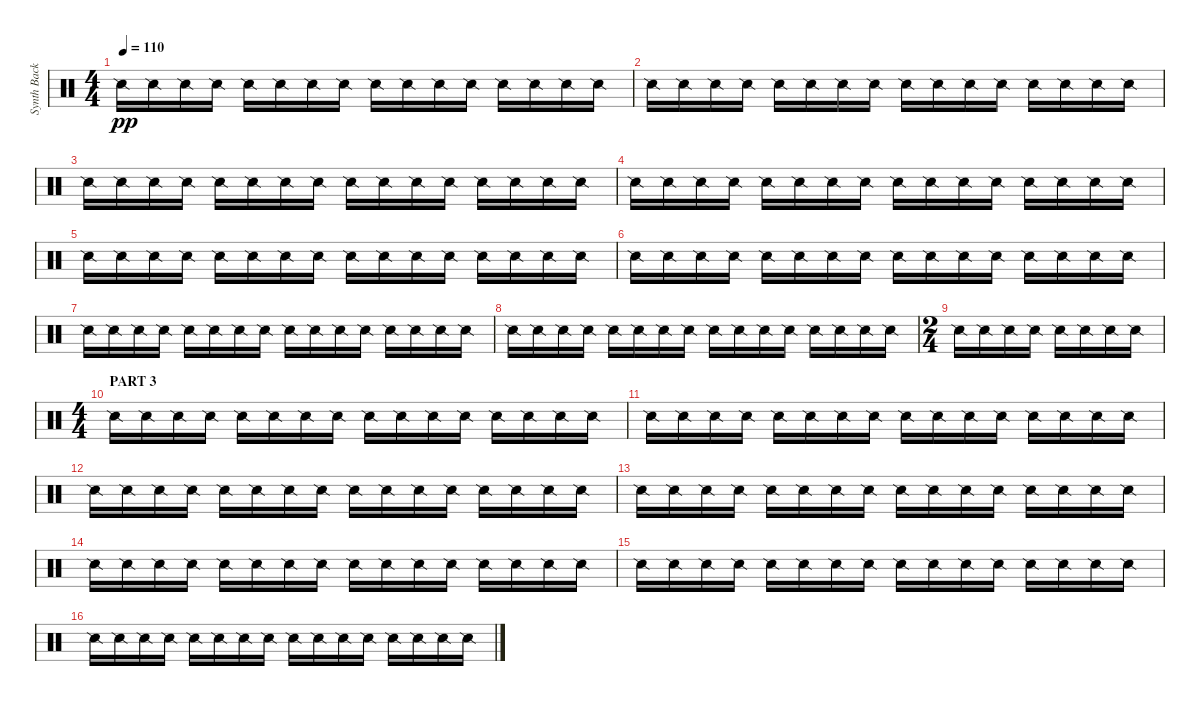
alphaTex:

\track ("Synth Background Rhythm" "Synth Back") {instrument percussion}
\staff {score}
\articulation defaults
\ts (4 4)
\tempo 110
\clef neutral
\ks c "Snare (side stick) 2".16{dy pp} "Snare (side stick) 2".16 "Snare (side stick) 2".16 "Snare (side stick) 2".16 "Snare (side stick) 2".16 "Snare (side stick) 2".16 "Snare (side stick) 2".16 "Snare (side stick) 2".16 "Snare (side stick) 2".16 "Snare (side stick) 2".16 "Snare (side stick) 2".16 "Snare (side stick) 2".16 "Snare (side stick) 2".16 "Snare (side stick) 2".16 "Snare (side stick) 2".16 "Snare (side stick) 2".16
|
"Snare (side stick) 2".16 "Snare (side stick) 2".16 "Snare (side stick) 2".16 "Snare (side stick) 2".16 "Snare (side stick) 2".16 "Snare (side stick) 2".16 "Snare (side stick) 2".16 "Snare (side stick) 2".16 "Snare (side stick) 2".16 "Snare (side stick) 2".16 "Snare (side stick) 2".16 "Snare (side stick) 2".16 "Snare (side stick) 2".16 "Snare (side stick) 2".16 "Snare (side stick) 2".16 "Snare (side stick) 2".16 |
"Snare (side stick) 2".16 "Snare (side stick) 2".16 "Snare (side stick) 2".16 "Snare (side stick) 2".16 "Snare (side stick) 2".16 "Snare (side stick) 2".16 "Snare (side stick) 2".16 "Snare (side stick) 2".16 "Snare (side stick) 2".16 "Snare (side stick) 2".16 "Snare (side stick) 2".16 "Snare (side stick) 2".16 "Snare (side stick) 2".16 "Snare (side stick) 2".16 "Snare (side stick) 2".16 "Snare (side stick) 2".16 |
"Snare (side stick) 2".16 "Snare (side stick) 2".16 "Snare (side stick) 2".16 "Snare (side stick) 2".16 "Snare (side stick) 2".16 "Snare (side stick) 2".16 "Snare (side stick) 2".16 "Snare (side stick) 2".16 "Snare (side stick) 2".16 "Snare (side stick) 2".16 "Snare (side stick) 2".16 "Snare (side stick) 2".16 "Snare (side stick) 2".16 "Snare (side stick) 2".16 "Snare (side stick) 2".16 "Snare (side stick) 2".16 |
"Snare (side stick) 2".16 "Snare (side stick) 2".16 "Snare (side stick) 2".16 "Snare (side stick) 2".16 "Snare (side stick) 2".16 "Snare (side stick) 2".16 "Snare (side stick) 2".16 "Snare (side stick) 2".16 "Snare (side stick) 2".16 "Snare (side stick) 2".16 "Snare (side stick) 2".16 "Snare (side stick) 2".16 "Snare (side stick) 2".16 "Snare (side stick) 2".16 "Snare (side stick) 2".16 "Snare (side stick) 2".16 |
"Snare (side stick) 2".16 "Snare (side stick) 2".16 "Snare (side stick) 2".16 "Snare (side stick) 2".16 "Snare (side stick) 2".16 "Snare (side stick) 2".16 "Snare (side stick) 2".16 "Snare (side stick) 2".16 "Snare (side stick) 2".16 "Snare (side stick) 2".16 "Snare (side stick) 2".16 "Snare (side stick) 2".16 "Snare (side stick) 2".16 "Snare (side stick) 2".16 "Snare (side stick) 2".16 "Snare (side stick) 2".16 |
"Snare (side stick) 2".16 "Snare (side stick) 2".16 "Snare (side stick) 2".16 "Snare (side stick) 2".16 "Snare (side stick) 2".16 "Snare (side stick) 2".16 "Snare (side stick) 2".16 "Snare (side stick) 2".16 "Snare (side stick) 2".16 "Snare (side stick) 2".16 "Snare (side stick) 2".16 "Snare (side stick) 2".16 "Snare (side stick) 2".16 "Snare (side stick) 2".16 "Snare (side stick) 2".16 "Snare (side stick) 2".16 |
"Snare (side stick) 2".16 "Snare (side stick) 2".16 "Snare (side stick) 2".16 "Snare (side stick) 2".16 "Snare (side stick) 2".16 "Snare (side stick) 2".16 "Snare (side stick) 2".16 "Snare (side stick) 2".16 "Snare (side stick) 2".16 "Snare (side stick) 2".16 "Snare (side stick) 2".16 "Snare (side stick) 2".16 "Snare (side stick) 2".16 "Snare (side stick) 2".16 "Snare (side stick) 2".16 "Snare (side stick) 2".16 |
\ts (2 4)
"Snare (side stick) 2".16 "Snare (side stick) 2".16 "Snare (side stick) 2".16 "Snare (side stick) 2".16 "Snare (side stick) 2".16 "Snare (side stick) 2".16 "Snare (side stick) 2".16 "Snare (side stick) 2".16 |
\ts (4 4)
\section ("" "PART 3")
"Snare (side stick) 2".16 "Snare (side stick) 2".16 "Snare (side stick) 2".16 "Snare (side stick) 2".16 "Snare (side stick) 2".16 "Snare (side stick) 2".16 "Snare (side stick) 2".16 "Snare (side stick) 2".16 "Snare (side stick) 2".16 "Snare (side stick) 2".16 "Snare (side stick) 2".16 "Snare (side stick) 2".16 "Snare (side stick) 2".16 "Snare (side stick) 2".16 "Snare (side stick) 2".16 "Snare (side stick) 2".16 |
"Snare (side stick) 2".16 "Snare (side stick) 2".16 "Snare (side stick) 2".16 "Snare (side stick) 2".16 "Snare (side stick) 2".16 "Snare (side stick) 2".16 "Snare (side stick) 2".16 "Snare (side stick) 2".16 "Snare (side stick) 2".16 "Snare (side stick) 2".16 "Snare (side stick) 2".16 "Snare (side stick) 2".16 "Snare (side stick) 2".16 "Snare (side stick) 2".16 "Snare (side stick) 2".16 "Snare (side stick) 2".16 |
"Snare (side stick) 2".16 "Snare (side stick) 2".16 "Snare (side stick) 2".16 "Snare (side stick) 2".16 "Snare (side stick) 2".16 "Snare (side stick) 2".16 "Snare (side stick) 2".16 "Snare (side stick) 2".16 "Snare (side stick) 2".16 "Snare (side stick) 2".16 "Snare (side stick) 2".16 "Snare (side stick) 2".16 "Snare (side stick) 2".16 "Snare (side stick) 2".16 "Snare (side stick) 2".16 "Snare (side stick) 2".16 |
"Snare (side stick) 2".16 "Snare (side stick) 2".16 "Snare (side stick) 2".16 "Snare (side stick) 2".16 "Snare (side stick) 2".16 "Snare (side stick) 2".16 "Snare (side stick) 2".16 "Snare (side stick) 2".16 "Snare (side stick) 2".16 "Snare (side stick) 2".16 "Snare (side stick) 2".16 "Snare (side stick) 2".16 "Snare (side stick) 2".16 "Snare (side stick) 2".16 "Snare (side stick) 2".16 "Snare (side stick) 2".16 |
"Snare (side stick) 2".16 "Snare (side stick) 2".16 "Snare (side stick) 2".16 "Snare (side stick) 2".16 "Snare (side stick) 2".16 "Snare (side stick) 2".16 "Snare (side stick) 2".16 "Snare (side stick) 2".16 "Snare (side stick) 2".16 "Snare (side stick) 2".16 "Snare (side stick) 2".16 "Snare (side stick) 2".16 "Snare (side stick) 2".16 "Snare (side stick) 2".16 "Snare (side stick) 2".16 "Snare (side stick) 2".16 |
"Snare (side stick) 2".16 "Snare (side stick) 2".16 "Snare (side stick) 2".16 "Snare (side stick) 2".16 "Snare (side stick) 2".16 "Snare (side stick) 2".16 "Snare (side stick) 2".16 "Snare (side stick) 2".16 "Snare (side stick) 2".16 "Snare (side stick) 2".16 "Snare (side stick) 2".16 "Snare (side stick) 2".16 "Snare (side stick) 2".16 "Snare (side stick) 2".16 "Snare (side stick) 2".16 "Snare (side stick) 2".16 |
"Snare (side stick) 2".16 "Snare (side stick) 2".16 "Snare (side stick) 2".16 "Snare (side stick) 2".16 "Snare (side stick) 2".16 "Snare (side stick) 2".16 "Snare (side stick) 2".16 "Snare (side stick) 2".16 "Snare (side stick) 2".16 "Snare (side stick) 2".16 "Snare (side stick) 2".16 "Snare (side stick) 2".16 "Snare (side stick) 2".16 "Snare (side stick) 2".16 "Snare (side stick) 2".16 "Snare (side stick) 2".16
